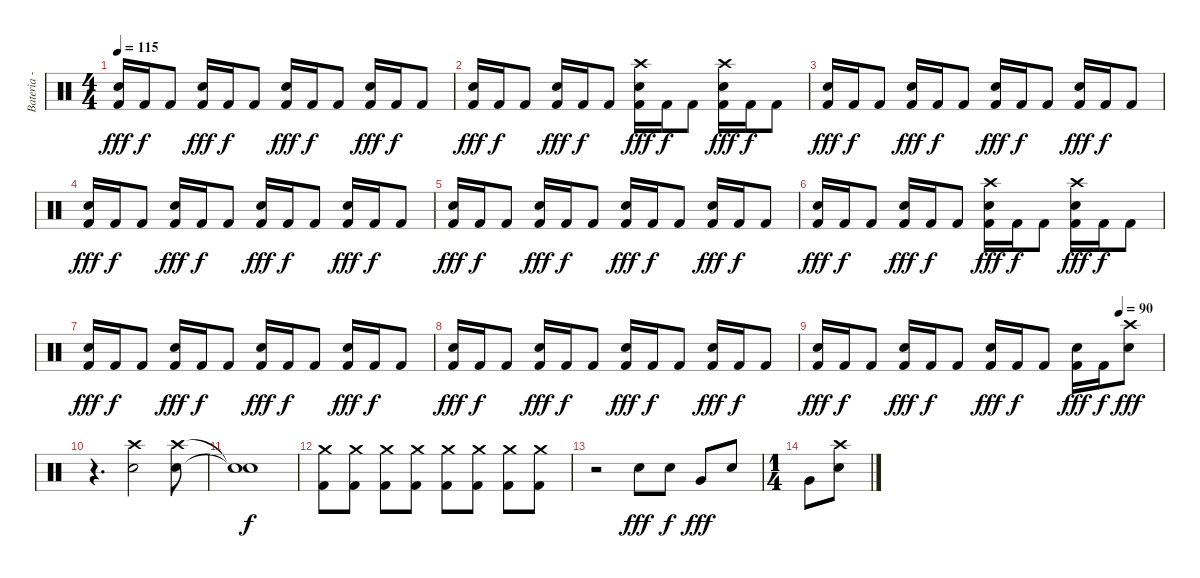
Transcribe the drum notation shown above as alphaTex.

\track ("Bateria - Larzon" "Bateria - ") {instrument percussion}
\staff {score}
\articulation defaults
\ts (4 4)
\tempo 115
\clef neutral
\ks c
("Kick (hit) 2" "Electric Snare (hit)").16{dy fff} "Kick (hit) 2".16{dy f} "Kick (hit) 2".8 ("Kick (hit) 2" "Electric Snare (hit)").16{dy fff} "Kick (hit) 2".16{dy f} "Kick (hit) 2".8 ("Kick (hit) 2" "Electric Snare (hit)").16{dy fff} "Kick (hit) 2".16{dy f} "Kick (hit) 2".8 ("Kick (hit) 2" "Electric Snare (hit)").16{dy fff} "Kick (hit) 2".16{dy f} "Kick (hit) 2".8 |
("Kick (hit) 2" "Electric Snare (hit)").16{dy fff} "Kick (hit) 2".16{dy f} "Kick (hit) 2".8 ("Kick (hit) 2" "Electric Snare (hit)").16{dy fff} "Kick (hit) 2".16{dy f} "Kick (hit) 2".8 ("Kick (hit) 2" "Crash high (hit)" "Electric Snare (hit)").16{dy fff} "Kick (hit) 2".16{dy f} "Kick (hit) 2".8 ("Kick (hit) 2" "Crash high (hit)" "Electric Snare (hit)").16{dy fff} "Kick (hit) 2".16{dy f} "Kick (hit) 2".8 |
("Kick (hit) 2" "Electric Snare (hit)").16{dy fff} "Kick (hit) 2".16{dy f} "Kick (hit) 2".8 ("Kick (hit) 2" "Electric Snare (hit)").16{dy fff} "Kick (hit) 2".16{dy f} "Kick (hit) 2".8 ("Kick (hit) 2" "Electric Snare (hit)").16{dy fff} "Kick (hit) 2".16{dy f} "Kick (hit) 2".8 ("Kick (hit) 2" "Electric Snare (hit)").16{dy fff} "Kick (hit) 2".16{dy f} "Kick (hit) 2".8 |
("Kick (hit) 2" "Electric Snare (hit)").16{dy fff} "Kick (hit) 2".16{dy f} "Kick (hit) 2".8 ("Kick (hit) 2" "Electric Snare (hit)").16{dy fff} "Kick (hit) 2".16{dy f} "Kick (hit) 2".8 ("Kick (hit) 2" "Electric Snare (hit)").16{dy fff} "Kick (hit) 2".16{dy f} "Kick (hit) 2".8 ("Kick (hit) 2" "Electric Snare (hit)").16{dy fff} "Kick (hit) 2".16{dy f} "Kick (hit) 2".8 |
("Kick (hit) 2" "Electric Snare (hit)").16{dy fff} "Kick (hit) 2".16{dy f} "Kick (hit) 2".8 ("Kick (hit) 2" "Electric Snare (hit)").16{dy fff} "Kick (hit) 2".16{dy f} "Kick (hit) 2".8 ("Kick (hit) 2" "Electric Snare (hit)").16{dy fff} "Kick (hit) 2".16{dy f} "Kick (hit) 2".8 ("Kick (hit) 2" "Electric Snare (hit)").16{dy fff} "Kick (hit) 2".16{dy f} "Kick (hit) 2".8 |
("Kick (hit) 2" "Electric Snare (hit)").16{dy fff} "Kick (hit) 2".16{dy f} "Kick (hit) 2".8 ("Kick (hit) 2" "Electric Snare (hit)").16{dy fff} "Kick (hit) 2".16{dy f} "Kick (hit) 2".8 ("Kick (hit) 2" "Crash high (hit)" "Electric Snare (hit)").16{dy fff} "Kick (hit) 2".16{dy f} "Kick (hit) 2".8 ("Kick (hit) 2" "Crash high (hit)" "Electric Snare (hit)").16{dy fff} "Kick (hit) 2".16{dy f} "Kick (hit) 2".8 |
("Kick (hit) 2" "Electric Snare (hit)").16{dy fff} "Kick (hit) 2".16{dy f} "Kick (hit) 2".8 ("Kick (hit) 2" "Electric Snare (hit)").16{dy fff} "Kick (hit) 2".16{dy f} "Kick (hit) 2".8 ("Kick (hit) 2" "Electric Snare (hit)").16{dy fff} "Kick (hit) 2".16{dy f} "Kick (hit) 2".8 ("Kick (hit) 2" "Electric Snare (hit)").16{dy fff} "Kick (hit) 2".16{dy f} "Kick (hit) 2".8 |
("Kick (hit) 2" "Electric Snare (hit)").16{dy fff} "Kick (hit) 2".16{dy f} "Kick (hit) 2".8 ("Kick (hit) 2" "Electric Snare (hit)").16{dy fff} "Kick (hit) 2".16{dy f} "Kick (hit) 2".8 ("Kick (hit) 2" "Electric Snare (hit)").16{dy fff} "Kick (hit) 2".16{dy f} "Kick (hit) 2".8 ("Kick (hit) 2" "Electric Snare (hit)").16{dy fff} "Kick (hit) 2".16{dy f} "Kick (hit) 2".8 |
\tempo (90 0.875)
("Kick (hit) 2" "Electric Snare (hit)").16{dy fff} "Kick (hit) 2".16{dy f} "Kick (hit) 2".8 ("Kick (hit) 2" "Electric Snare (hit)").16{dy fff} "Kick (hit) 2".16{dy f} "Kick (hit) 2".8 ("Kick (hit) 2" "Electric Snare (hit)").16{dy fff} "Kick (hit) 2".16{dy f} "Kick (hit) 2".8 ("Kick (hit) 2" "Electric Snare (hit)").16{dy fff} "Kick (hit) 2".16{dy f} ("Crash high (hit)" "Electric Snare (hit)").8{dy fff} |
r.4{d} ("Crash high (hit)" "Electric Snare (hit)").2 ("Crash high (hit)" "Electric Snare (hit)").8 |
("Snare (hit)"{t} "Snare (hit)"{t}).1{dy f} |
("Crash medium (hit)" "Kick (hit) 2").8 ("Crash medium (hit)" "Kick (hit) 2").8 ("Crash medium (hit)" "Kick (hit) 2").8 ("Crash medium (hit)" "Kick (hit) 2").8 ("Crash medium (hit)" "Kick (hit) 2").8 ("Crash medium (hit)" "Kick (hit) 2").8 ("Crash medium (hit)" "Kick (hit) 2").8 ("Crash medium (hit)" "Kick (hit) 2").8 |
r.2 "Electric Snare (hit)".8{dy fff} "Snare (hit) 2".8{dy f} "Very Low Tom (hit)".8{dy fff} "Electric Snare (hit)".8 |
\ts (1 4)
"Very Low Tom (hit)".8 ("Crash high (hit)" "Electric Snare (hit)").8
